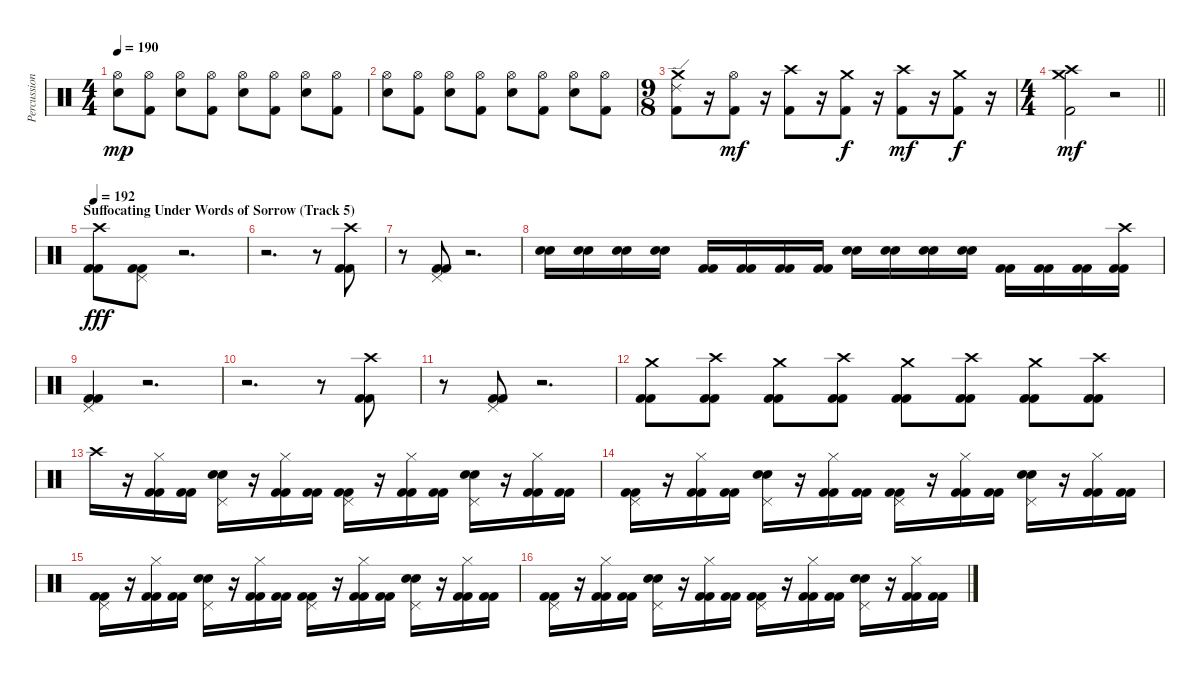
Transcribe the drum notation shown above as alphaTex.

\track ("Percussion" "Percussion") {instrument percussion}
\staff {score}
\articulation defaults
\ts (4 4)
\tempo 190
\clef neutral
\ks c
("Snare (hit) 2" "Hi-Hat (open)").8{dy mp} ("Kick (hit) 2" "Hi-Hat (open)").8 ("Snare (hit) 2" "Hi-Hat (open)").8 ("Kick (hit) 2" "Hi-Hat (open)").8 ("Snare (hit) 2" "Hi-Hat (open)").8 ("Kick (hit) 2" "Hi-Hat (open)").8 ("Snare (hit) 2" "Hi-Hat (open)").8 ("Kick (hit) 2" "Hi-Hat (open)").8 |
("Snare (hit) 2" "Hi-Hat (open)").8 ("Kick (hit) 2" "Hi-Hat (open)").8 ("Snare (hit) 2" "Hi-Hat (open)").8 ("Kick (hit) 2" "Hi-Hat (open)").8 ("Snare (hit) 2" "Hi-Hat (open)").8 ("Kick (hit) 2" "Hi-Hat (open)").8 ("Snare (hit) 2" "Hi-Hat (open)").8 ("Kick (hit) 2" "Hi-Hat (open)").8 |
\ts (9 8)
("Kick (hit) 2" "Crash medium (hit)" "Ride (edge) 2").8 r.16 ("Kick (hit) 2" "Hi-Hat (open)").8{dy mf} r.16 ("Kick (hit) 2" "Crash high (hit)").8 r.16 ("Kick (hit) 2" "Crash medium (hit)").8{dy f} r.16 ("Kick (hit) 2" "Crash high (hit)").8{dy mf} r.16 ("Kick (hit) 2" "Crash medium (hit)").8{dy f} r.16 |
\ts (4 4)
\barLineRight lightlight
("Kick (hit) 2" "Crash high (hit)" "Crash medium (hit)").2{dy mf} r.2 |
\section ("" "Suffocating Under Words of Sorrow (Track 5)")
\tempo 192
("Crash high (hit)" "Kick (hit) 2" "Kick (hit) 2").8{dy fff} ("Pedal Hi-Hat (hit)" "Kick (hit) 2" "Kick (hit) 2").8 r.2{d} |
r.2{d} r.8 ("Crash high (hit)" "Kick (hit) 2" "Kick (hit) 2").8 |
r.8 ("Pedal Hi-Hat (hit)" "Kick (hit) 2" "Kick (hit) 2").8 r.2{d} |
("Snare (hit) 2" "Electric Snare (hit)").16 ("Snare (hit) 2" "Electric Snare (hit)").16 ("Snare (hit) 2" "Electric Snare (hit)").16 ("Snare (hit) 2" "Electric Snare (hit)").16 ("Kick (hit) 2" "Kick (hit) 2").16 ("Kick (hit) 2" "Kick (hit) 2").16 ("Kick (hit) 2" "Kick (hit) 2").16 ("Kick (hit) 2" "Kick (hit) 2").16 ("Snare (hit) 2" "Electric Snare (hit)").16 ("Snare (hit) 2" "Electric Snare (hit)").16 ("Snare (hit) 2" "Electric Snare (hit)").16 ("Snare (hit) 2" "Electric Snare (hit)").16 ("Kick (hit) 2" "Kick (hit) 2").16 ("Kick (hit) 2" "Kick (hit) 2").16 ("Kick (hit) 2" "Kick (hit) 2").16 ("Crash high (hit)" "Kick (hit) 2" "Kick (hit) 2").16 |
("Pedal Hi-Hat (hit)" "Kick (hit) 2" "Kick (hit) 2").4 r.2{d} |
r.2{d} r.8 ("Crash high (hit)" "Kick (hit) 2" "Kick (hit) 2").8 |
r.8 ("Pedal Hi-Hat (hit)" "Kick (hit) 2" "Kick (hit) 2").8 r.2{d} |
("Crash medium (hit)" "Kick (hit) 2" "Kick (hit) 2").8 ("Crash high (hit)" "Kick (hit) 2" "Kick (hit) 2").8 ("Crash medium (hit)" "Kick (hit) 2" "Kick (hit) 2").8 ("Crash high (hit)" "Kick (hit) 2" "Kick (hit) 2").8 ("Crash medium (hit)" "Kick (hit) 2" "Kick (hit) 2").8 ("Crash high (hit)" "Kick (hit) 2" "Kick (hit) 2").8 ("Crash medium (hit)" "Kick (hit) 2" "Kick (hit) 2").8 ("Crash high (hit)" "Kick (hit) 2" "Kick (hit) 2").8 |
"Crash high (hit)".16 r.16 ("Hi-Hat (closed)" "Kick (hit) 2" "Kick (hit) 2").16 ("Kick (hit) 2" "Kick (hit) 2").16 ("Pedal Hi-Hat (hit)" "Snare (hit) 2" "Electric Snare (hit)").16 r.16 ("Hi-Hat (closed)" "Kick (hit) 2" "Kick (hit) 2").16 ("Kick (hit) 2" "Kick (hit) 2").16 ("Pedal Hi-Hat (hit)" "Kick (hit) 2" "Kick (hit) 2").16 r.16 ("Hi-Hat (closed)" "Kick (hit) 2" "Kick (hit) 2").16 ("Kick (hit) 2" "Kick (hit) 2").16 ("Pedal Hi-Hat (hit)" "Snare (hit) 2" "Electric Snare (hit)").16 r.16 ("Hi-Hat (closed)" "Kick (hit) 2" "Kick (hit) 2").16 ("Kick (hit) 2" "Kick (hit) 2").16 |
("Pedal Hi-Hat (hit)" "Kick (hit) 2" "Kick (hit) 2").16 r.16 ("Hi-Hat (closed)" "Kick (hit) 2" "Kick (hit) 2").16 ("Kick (hit) 2" "Kick (hit) 2").16 ("Pedal Hi-Hat (hit)" "Snare (hit) 2" "Electric Snare (hit)").16 r.16 ("Hi-Hat (closed)" "Kick (hit) 2" "Kick (hit) 2").16 ("Kick (hit) 2" "Kick (hit) 2").16 ("Pedal Hi-Hat (hit)" "Kick (hit) 2" "Kick (hit) 2").16 r.16 ("Hi-Hat (closed)" "Kick (hit) 2" "Kick (hit) 2").16 ("Kick (hit) 2" "Kick (hit) 2").16 ("Pedal Hi-Hat (hit)" "Snare (hit) 2" "Electric Snare (hit)").16 r.16 ("Hi-Hat (closed)" "Kick (hit) 2" "Kick (hit) 2").16 ("Kick (hit) 2" "Kick (hit) 2").16 |
("Pedal Hi-Hat (hit)" "Kick (hit) 2" "Kick (hit) 2").16 r.16 ("Hi-Hat (closed)" "Kick (hit) 2" "Kick (hit) 2").16 ("Kick (hit) 2" "Kick (hit) 2").16 ("Pedal Hi-Hat (hit)" "Snare (hit) 2" "Electric Snare (hit)").16 r.16 ("Hi-Hat (closed)" "Kick (hit) 2" "Kick (hit) 2").16 ("Kick (hit) 2" "Kick (hit) 2").16 ("Pedal Hi-Hat (hit)" "Kick (hit) 2" "Kick (hit) 2").16 r.16 ("Hi-Hat (closed)" "Kick (hit) 2" "Kick (hit) 2").16 ("Kick (hit) 2" "Kick (hit) 2").16 ("Pedal Hi-Hat (hit)" "Snare (hit) 2" "Electric Snare (hit)").16 r.16 ("Hi-Hat (closed)" "Kick (hit) 2" "Kick (hit) 2").16 ("Kick (hit) 2" "Kick (hit) 2").16 |
("Pedal Hi-Hat (hit)" "Kick (hit) 2" "Kick (hit) 2").16 r.16 ("Hi-Hat (closed)" "Kick (hit) 2" "Kick (hit) 2").16 ("Kick (hit) 2" "Kick (hit) 2").16 ("Pedal Hi-Hat (hit)" "Snare (hit) 2" "Electric Snare (hit)").16 r.16 ("Hi-Hat (closed)" "Kick (hit) 2" "Kick (hit) 2").16 ("Kick (hit) 2" "Kick (hit) 2").16 ("Pedal Hi-Hat (hit)" "Kick (hit) 2" "Kick (hit) 2").16 r.16 ("Hi-Hat (closed)" "Kick (hit) 2" "Kick (hit) 2").16 ("Kick (hit) 2" "Kick (hit) 2").16 ("Pedal Hi-Hat (hit)" "Snare (hit) 2" "Electric Snare (hit)").16 r.16 ("Hi-Hat (closed)" "Kick (hit) 2" "Kick (hit) 2").16 ("Kick (hit) 2" "Kick (hit) 2").16
